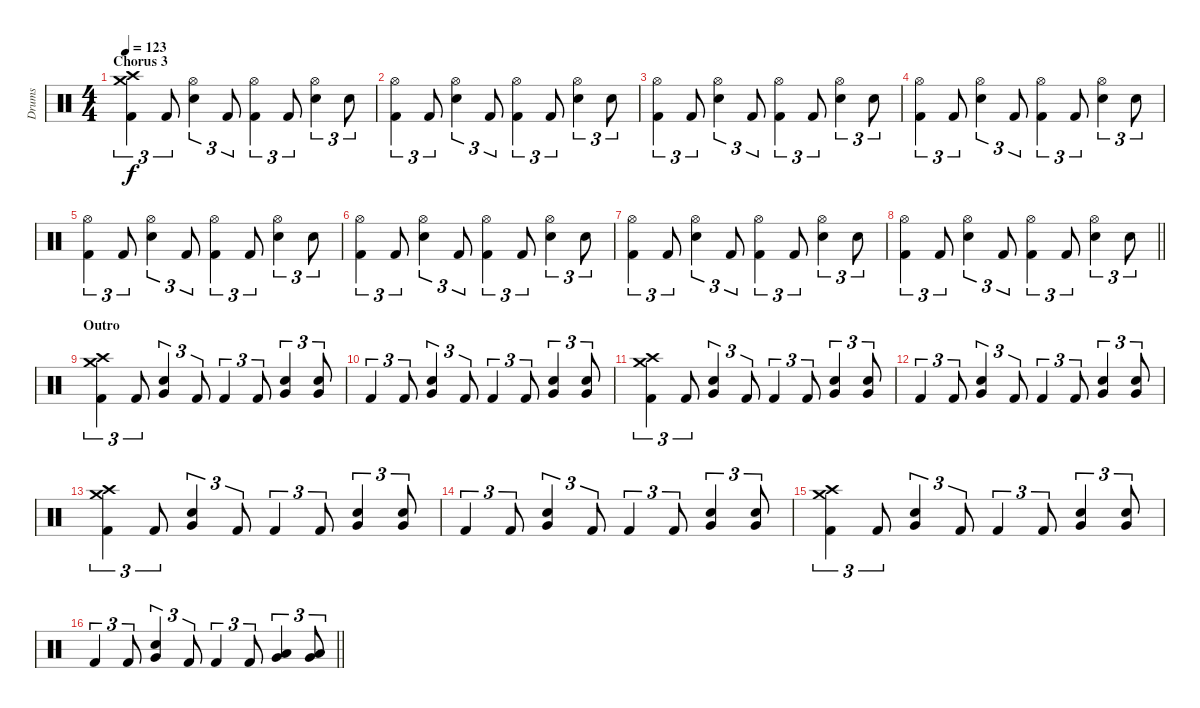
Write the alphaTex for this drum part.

\track ("Drums" "Drums") {instrument percussion}
\staff {score}
\articulation defaults
\ts (4 4)
\section ("" "Chorus 3")
\tempo 123
\clef neutral
\ks c
("Crash high (hit)" "Crash medium (hit)" "Kick (hit) 2").4{tu (3 2) dy f} "Kick (hit) 2".8{tu (3 2)} ("Hi-Hat (open)" "Snare (hit) 2").4{tu (3 2)} "Kick (hit) 2".8{tu (3 2)} ("Hi-Hat (open)" "Kick (hit) 2").4{tu (3 2)} "Kick (hit) 2".8{tu (3 2)} ("Hi-Hat (open)" "Snare (hit) 2").4{tu (3 2)} "Snare (hit) 2".8{tu (3 2)} |
("Hi-Hat (open)" "Kick (hit) 2").4{tu (3 2)} "Kick (hit) 2".8{tu (3 2)} ("Hi-Hat (open)" "Snare (hit) 2").4{tu (3 2)} "Kick (hit) 2".8{tu (3 2)} ("Hi-Hat (open)" "Kick (hit) 2").4{tu (3 2)} "Kick (hit) 2".8{tu (3 2)} ("Hi-Hat (open)" "Snare (hit) 2").4{tu (3 2)} "Snare (hit) 2".8{tu (3 2)} |
("Hi-Hat (open)" "Kick (hit) 2").4{tu (3 2)} "Kick (hit) 2".8{tu (3 2)} ("Hi-Hat (open)" "Snare (hit) 2").4{tu (3 2)} "Kick (hit) 2".8{tu (3 2)} ("Hi-Hat (open)" "Kick (hit) 2").4{tu (3 2)} "Kick (hit) 2".8{tu (3 2)} ("Hi-Hat (open)" "Snare (hit) 2").4{tu (3 2)} "Snare (hit) 2".8{tu (3 2)} |
("Hi-Hat (open)" "Kick (hit) 2").4{tu (3 2)} "Kick (hit) 2".8{tu (3 2)} ("Hi-Hat (open)" "Snare (hit) 2").4{tu (3 2)} "Kick (hit) 2".8{tu (3 2)} ("Hi-Hat (open)" "Kick (hit) 2").4{tu (3 2)} "Kick (hit) 2".8{tu (3 2)} ("Hi-Hat (open)" "Snare (hit) 2").4{tu (3 2)} "Snare (hit) 2".8{tu (3 2)} |
("Hi-Hat (open)" "Kick (hit) 2").4{tu (3 2)} "Kick (hit) 2".8{tu (3 2)} ("Hi-Hat (open)" "Snare (hit) 2").4{tu (3 2)} "Kick (hit) 2".8{tu (3 2)} ("Hi-Hat (open)" "Kick (hit) 2").4{tu (3 2)} "Kick (hit) 2".8{tu (3 2)} ("Hi-Hat (open)" "Snare (hit) 2").4{tu (3 2)} "Snare (hit) 2".8{tu (3 2)} |
("Hi-Hat (open)" "Kick (hit) 2").4{tu (3 2)} "Kick (hit) 2".8{tu (3 2)} ("Hi-Hat (open)" "Snare (hit) 2").4{tu (3 2)} "Kick (hit) 2".8{tu (3 2)} ("Hi-Hat (open)" "Kick (hit) 2").4{tu (3 2)} "Kick (hit) 2".8{tu (3 2)} ("Hi-Hat (open)" "Snare (hit) 2").4{tu (3 2)} "Snare (hit) 2".8{tu (3 2)} |
("Hi-Hat (open)" "Kick (hit) 2").4{tu (3 2)} "Kick (hit) 2".8{tu (3 2)} ("Hi-Hat (open)" "Snare (hit) 2").4{tu (3 2)} "Kick (hit) 2".8{tu (3 2)} ("Hi-Hat (open)" "Kick (hit) 2").4{tu (3 2)} "Kick (hit) 2".8{tu (3 2)} ("Hi-Hat (open)" "Snare (hit) 2").4{tu (3 2)} "Snare (hit) 2".8{tu (3 2)} |
\barLineRight lightlight
("Hi-Hat (open)" "Kick (hit) 2").4{tu (3 2)} "Kick (hit) 2".8{tu (3 2)} ("Hi-Hat (open)" "Snare (hit) 2").4{tu (3 2)} "Kick (hit) 2".8{tu (3 2)} ("Hi-Hat (open)" "Kick (hit) 2").4{tu (3 2)} "Kick (hit) 2".8{tu (3 2)} ("Hi-Hat (open)" "Snare (hit) 2").4{tu (3 2)} "Snare (hit) 2".8{tu (3 2)} |
\section ("" "Outro")
("Crash high (hit)" "Crash medium (hit)" "Kick (hit) 2").4{tu (3 2)} "Kick (hit) 2".8{tu (3 2)} ("Snare (hit) 2" "Very Low Tom (hit)").4{tu (3 2)} "Kick (hit) 2".8{tu (3 2)} "Kick (hit) 2".4{tu (3 2)} "Kick (hit) 2".8{tu (3 2)} ("Snare (hit) 2" "Very Low Tom (hit)").4{tu (3 2)} ("Snare (hit) 2" "Very Low Tom (hit)").8{tu (3 2)} |
"Kick (hit) 2".4{tu (3 2)} "Kick (hit) 2".8{tu (3 2)} ("Snare (hit) 2" "Very Low Tom (hit)").4{tu (3 2)} "Kick (hit) 2".8{tu (3 2)} "Kick (hit) 2".4{tu (3 2)} "Kick (hit) 2".8{tu (3 2)} ("Snare (hit) 2" "Very Low Tom (hit)").4{tu (3 2)} ("Snare (hit) 2" "Very Low Tom (hit)").8{tu (3 2)} |
("Crash high (hit)" "Crash medium (hit)" "Kick (hit) 2").4{tu (3 2)} "Kick (hit) 2".8{tu (3 2)} ("Snare (hit) 2" "Very Low Tom (hit)").4{tu (3 2)} "Kick (hit) 2".8{tu (3 2)} "Kick (hit) 2".4{tu (3 2)} "Kick (hit) 2".8{tu (3 2)} ("Snare (hit) 2" "Very Low Tom (hit)").4{tu (3 2)} ("Snare (hit) 2" "Very Low Tom (hit)").8{tu (3 2)} |
"Kick (hit) 2".4{tu (3 2)} "Kick (hit) 2".8{tu (3 2)} ("Snare (hit) 2" "Very Low Tom (hit)").4{tu (3 2)} "Kick (hit) 2".8{tu (3 2)} "Kick (hit) 2".4{tu (3 2)} "Kick (hit) 2".8{tu (3 2)} ("Snare (hit) 2" "Very Low Tom (hit)").4{tu (3 2)} ("Snare (hit) 2" "Very Low Tom (hit)").8{tu (3 2)} |
("Crash high (hit)" "Crash medium (hit)" "Kick (hit) 2").4{tu (3 2)} "Kick (hit) 2".8{tu (3 2)} ("Snare (hit) 2" "Very Low Tom (hit)").4{tu (3 2)} "Kick (hit) 2".8{tu (3 2)} "Kick (hit) 2".4{tu (3 2)} "Kick (hit) 2".8{tu (3 2)} ("Snare (hit) 2" "Very Low Tom (hit)").4{tu (3 2)} ("Snare (hit) 2" "Very Low Tom (hit)").8{tu (3 2)} |
"Kick (hit) 2".4{tu (3 2)} "Kick (hit) 2".8{tu (3 2)} ("Snare (hit) 2" "Very Low Tom (hit)").4{tu (3 2)} "Kick (hit) 2".8{tu (3 2)} "Kick (hit) 2".4{tu (3 2)} "Kick (hit) 2".8{tu (3 2)} ("Snare (hit) 2" "Very Low Tom (hit)").4{tu (3 2)} ("Snare (hit) 2" "Very Low Tom (hit)").8{tu (3 2)} |
("Crash high (hit)" "Crash medium (hit)" "Kick (hit) 2").4{tu (3 2)} "Kick (hit) 2".8{tu (3 2)} ("Snare (hit) 2" "Very Low Tom (hit)").4{tu (3 2)} "Kick (hit) 2".8{tu (3 2)} "Kick (hit) 2".4{tu (3 2)} "Kick (hit) 2".8{tu (3 2)} ("Snare (hit) 2" "Very Low Tom (hit)").4{tu (3 2)} ("Snare (hit) 2" "Very Low Tom (hit)").8{tu (3 2)} |
\barLineRight lightlight "Kick (hit) 2".4{tu (3 2)} "Kick (hit) 2".8{tu (3 2)}
("Snare (hit) 2" "Very Low Tom (hit)").4{tu (3 2)} "Kick (hit) 2".8{tu (3 2)} "Kick (hit) 2".4{tu (3 2)} "Kick (hit) 2".8{tu (3 2)} ("Low Floor Tom (hit)" "Very Low Tom (hit)").4{tu (3 2)} ("Low Floor Tom (hit)" "Very Low Tom (hit)").8{tu (3 2)}
